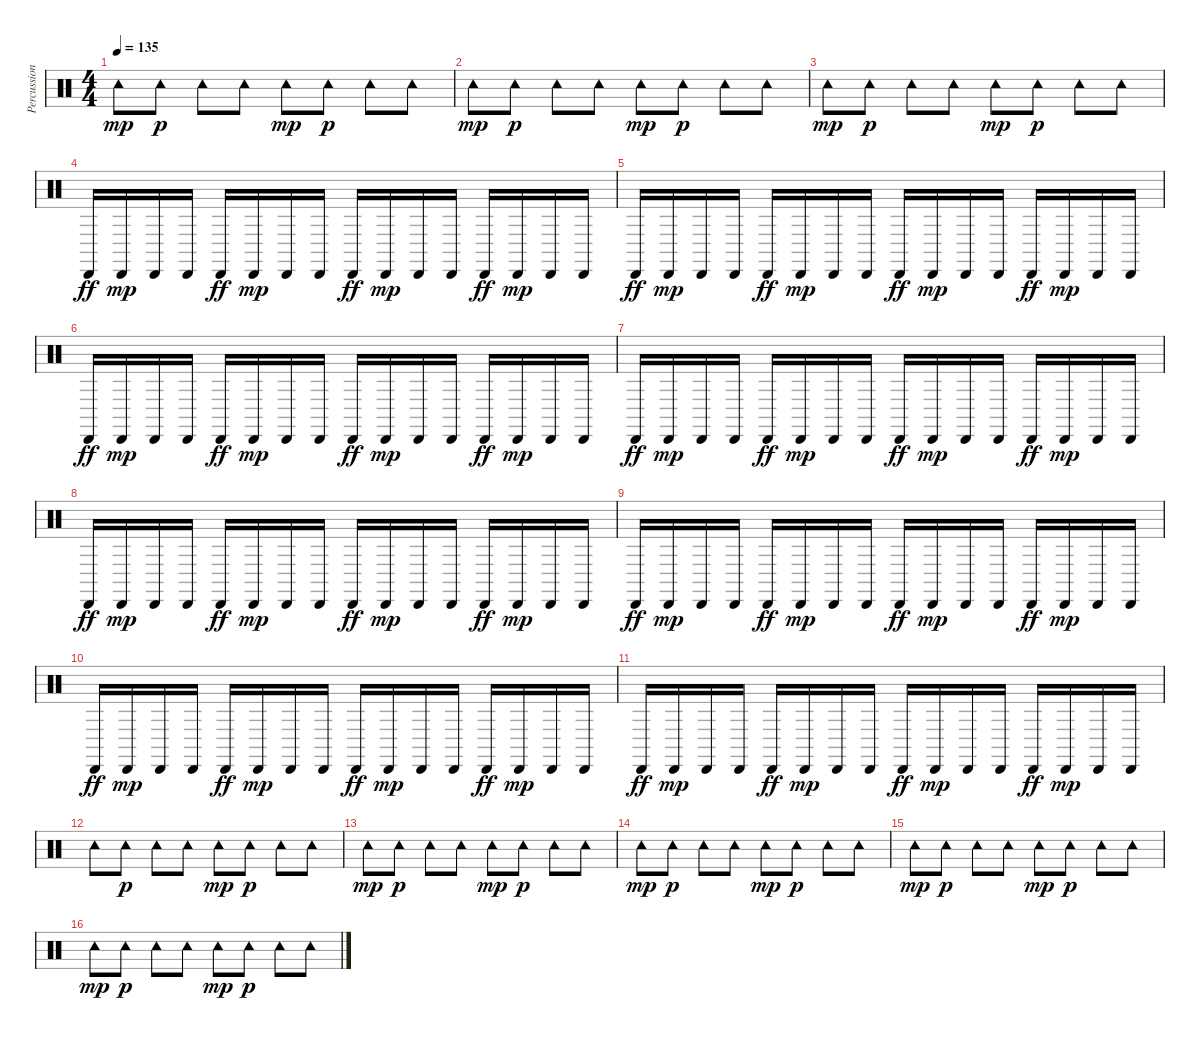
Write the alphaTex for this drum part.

\track ("Percussion2" "Percussion") {instrument percussion}
\staff {score}
\articulation defaults
\ts (4 4)
\tempo 135
\clef neutral
\ks c "Tambourine (hit)".8{dy mp} "Tambourine (hit)".8{dy p} "Tambourine (hit)".8 "Tambourine (hit)".8 "Tambourine (hit)".8{dy mp} "Tambourine (hit)".8{dy p} "Tambourine (hit)".8 "Tambourine (hit)".8
|
"Tambourine (hit)".8{dy mp} "Tambourine (hit)".8{dy p} "Tambourine (hit)".8 "Tambourine (hit)".8 "Tambourine (hit)".8{dy mp} "Tambourine (hit)".8{dy p} "Tambourine (hit)".8 "Tambourine (hit)".8 |
"Tambourine (hit)".8{dy mp} "Tambourine (hit)".8{dy p} "Tambourine (hit)".8 "Tambourine (hit)".8 "Tambourine (hit)".8{dy mp} "Tambourine (hit)".8{dy p} "Tambourine (hit)".8 "Tambourine (hit)".8 |
"Cabasa (hit)".16{dy ff} "Cabasa (hit)".16{dy mp} "Cabasa (hit)".16 "Cabasa (hit)".16 "Cabasa (hit)".16{dy ff} "Cabasa (hit)".16{dy mp} "Cabasa (hit)".16 "Cabasa (hit)".16 "Cabasa (hit)".16{dy ff} "Cabasa (hit)".16{dy mp} "Cabasa (hit)".16 "Cabasa (hit)".16 "Cabasa (hit)".16{dy ff} "Cabasa (hit)".16{dy mp} "Cabasa (hit)".16 "Cabasa (hit)".16 |
"Cabasa (hit)".16{dy ff} "Cabasa (hit)".16{dy mp} "Cabasa (hit)".16 "Cabasa (hit)".16 "Cabasa (hit)".16{dy ff} "Cabasa (hit)".16{dy mp} "Cabasa (hit)".16 "Cabasa (hit)".16 "Cabasa (hit)".16{dy ff} "Cabasa (hit)".16{dy mp} "Cabasa (hit)".16 "Cabasa (hit)".16 "Cabasa (hit)".16{dy ff} "Cabasa (hit)".16{dy mp} "Cabasa (hit)".16 "Cabasa (hit)".16 |
"Cabasa (hit)".16{dy ff} "Cabasa (hit)".16{dy mp} "Cabasa (hit)".16 "Cabasa (hit)".16 "Cabasa (hit)".16{dy ff} "Cabasa (hit)".16{dy mp} "Cabasa (hit)".16 "Cabasa (hit)".16 "Cabasa (hit)".16{dy ff} "Cabasa (hit)".16{dy mp} "Cabasa (hit)".16 "Cabasa (hit)".16 "Cabasa (hit)".16{dy ff} "Cabasa (hit)".16{dy mp} "Cabasa (hit)".16 "Cabasa (hit)".16 |
"Cabasa (hit)".16{dy ff} "Cabasa (hit)".16{dy mp} "Cabasa (hit)".16 "Cabasa (hit)".16 "Cabasa (hit)".16{dy ff} "Cabasa (hit)".16{dy mp} "Cabasa (hit)".16 "Cabasa (hit)".16 "Cabasa (hit)".16{dy ff} "Cabasa (hit)".16{dy mp} "Cabasa (hit)".16 "Cabasa (hit)".16 "Cabasa (hit)".16{dy ff} "Cabasa (hit)".16{dy mp} "Cabasa (hit)".16 "Cabasa (hit)".16 |
"Cabasa (hit)".16{dy ff} "Cabasa (hit)".16{dy mp} "Cabasa (hit)".16 "Cabasa (hit)".16 "Cabasa (hit)".16{dy ff} "Cabasa (hit)".16{dy mp} "Cabasa (hit)".16 "Cabasa (hit)".16 "Cabasa (hit)".16{dy ff} "Cabasa (hit)".16{dy mp} "Cabasa (hit)".16 "Cabasa (hit)".16 "Cabasa (hit)".16{dy ff} "Cabasa (hit)".16{dy mp} "Cabasa (hit)".16 "Cabasa (hit)".16 |
"Cabasa (hit)".16{dy ff} "Cabasa (hit)".16{dy mp} "Cabasa (hit)".16 "Cabasa (hit)".16 "Cabasa (hit)".16{dy ff} "Cabasa (hit)".16{dy mp} "Cabasa (hit)".16 "Cabasa (hit)".16 "Cabasa (hit)".16{dy ff} "Cabasa (hit)".16{dy mp} "Cabasa (hit)".16 "Cabasa (hit)".16 "Cabasa (hit)".16{dy ff} "Cabasa (hit)".16{dy mp} "Cabasa (hit)".16 "Cabasa (hit)".16 |
"Cabasa (hit)".16{dy ff} "Cabasa (hit)".16{dy mp} "Cabasa (hit)".16 "Cabasa (hit)".16 "Cabasa (hit)".16{dy ff} "Cabasa (hit)".16{dy mp} "Cabasa (hit)".16 "Cabasa (hit)".16 "Cabasa (hit)".16{dy ff} "Cabasa (hit)".16{dy mp} "Cabasa (hit)".16 "Cabasa (hit)".16 "Cabasa (hit)".16{dy ff} "Cabasa (hit)".16{dy mp} "Cabasa (hit)".16 "Cabasa (hit)".16 |
"Cabasa (hit)".16{dy ff} "Cabasa (hit)".16{dy mp} "Cabasa (hit)".16 "Cabasa (hit)".16 "Cabasa (hit)".16{dy ff} "Cabasa (hit)".16{dy mp} "Cabasa (hit)".16 "Cabasa (hit)".16 "Cabasa (hit)".16{dy ff} "Cabasa (hit)".16{dy mp} "Cabasa (hit)".16 "Cabasa (hit)".16 "Cabasa (hit)".16{dy ff} "Cabasa (hit)".16{dy mp} "Cabasa (hit)".16 "Cabasa (hit)".16 |
"Tambourine (hit)".8 "Tambourine (hit)".8{dy p} "Tambourine (hit)".8 "Tambourine (hit)".8 "Tambourine (hit)".8{dy mp} "Tambourine (hit)".8{dy p} "Tambourine (hit)".8 "Tambourine (hit)".8 |
"Tambourine (hit)".8{dy mp} "Tambourine (hit)".8{dy p} "Tambourine (hit)".8 "Tambourine (hit)".8 "Tambourine (hit)".8{dy mp} "Tambourine (hit)".8{dy p} "Tambourine (hit)".8 "Tambourine (hit)".8 |
"Tambourine (hit)".8{dy mp} "Tambourine (hit)".8{dy p} "Tambourine (hit)".8 "Tambourine (hit)".8 "Tambourine (hit)".8{dy mp} "Tambourine (hit)".8{dy p} "Tambourine (hit)".8 "Tambourine (hit)".8 |
"Tambourine (hit)".8{dy mp} "Tambourine (hit)".8{dy p} "Tambourine (hit)".8 "Tambourine (hit)".8 "Tambourine (hit)".8{dy mp} "Tambourine (hit)".8{dy p} "Tambourine (hit)".8 "Tambourine (hit)".8 |
"Tambourine (hit)".8{dy mp} "Tambourine (hit)".8{dy p} "Tambourine (hit)".8 "Tambourine (hit)".8 "Tambourine (hit)".8{dy mp} "Tambourine (hit)".8{dy p} "Tambourine (hit)".8 "Tambourine (hit)".8
